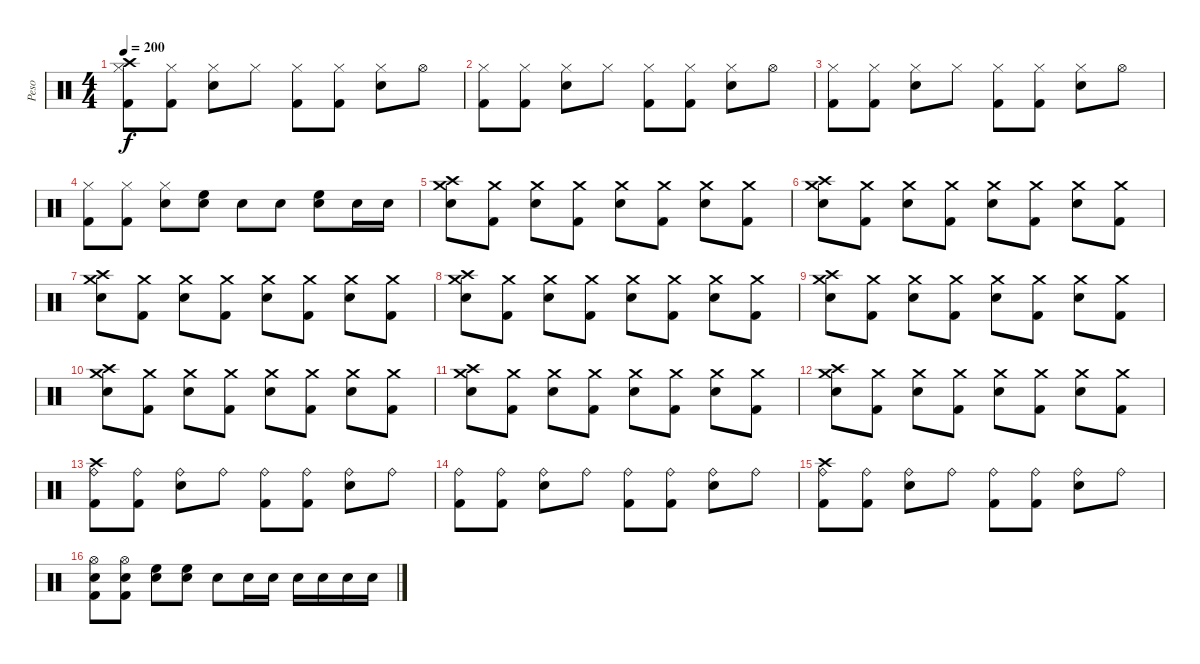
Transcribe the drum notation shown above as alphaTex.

\track ("Peso" "Peso") {instrument percussion}
\staff {score}
\articulation defaults
\ts (4 4)
\tempo 200
\clef neutral
\ks c
("Crash high (hit)" "Hi-Hat (closed)" "Kick (hit) 2").8{dy f} ("Hi-Hat (closed)" "Kick (hit) 2").8 ("Hi-Hat (closed)" "Snare (hit) 2").8 "Hi-Hat (closed)".8 ("Hi-Hat (closed)" "Kick (hit) 2").8 ("Hi-Hat (closed)" "Kick (hit) 2").8 ("Hi-Hat (closed)" "Snare (hit) 2").8 "Hi-Hat (open)".8 |
("Hi-Hat (closed)" "Kick (hit) 2").8 ("Hi-Hat (closed)" "Kick (hit) 2").8 ("Hi-Hat (closed)" "Snare (hit) 2").8 "Hi-Hat (closed)".8 ("Hi-Hat (closed)" "Kick (hit) 2").8 ("Hi-Hat (closed)" "Kick (hit) 2").8 ("Hi-Hat (closed)" "Snare (hit) 2").8 "Hi-Hat (open)".8 |
("Hi-Hat (closed)" "Kick (hit) 2").8 ("Hi-Hat (closed)" "Kick (hit) 2").8 ("Hi-Hat (closed)" "Snare (hit) 2").8 "Hi-Hat (closed)".8 ("Hi-Hat (closed)" "Kick (hit) 2").8 ("Hi-Hat (closed)" "Kick (hit) 2").8 ("Hi-Hat (closed)" "Snare (hit) 2").8 "Hi-Hat (open)".8 |
("Hi-Hat (closed)" "Kick (hit) 2").8 ("Hi-Hat (closed)" "Kick (hit) 2").8 ("Hi-Hat (closed)" "Snare (hit) 2").8 ("Snare (hit) 2" "High Floor Tom (hit)").8 "Snare (hit) 2".8 "Snare (hit) 2".8 ("Snare (hit) 2" "High Floor Tom (hit)").8 "Snare (hit) 2".16 "Snare (hit) 2".16 |
("Crash high (hit)" "Crash medium (hit)" "Snare (hit) 2").8 ("Crash medium (hit)"{x} "Kick (hit) 2").8 ("Crash medium (hit)" "Snare (hit) 2").8 ("Crash medium (hit)"{x} "Kick (hit) 2").8 ("Crash medium (hit)" "Snare (hit) 2").8 ("Crash medium (hit)"{x} "Kick (hit) 2").8 ("Crash medium (hit)" "Snare (hit) 2").8 ("Crash medium (hit)"{x} "Kick (hit) 2").8 |
("Crash high (hit)" "Crash medium (hit)" "Snare (hit) 2").8 ("Crash medium (hit)"{x} "Kick (hit) 2").8 ("Crash medium (hit)" "Snare (hit) 2").8 ("Crash medium (hit)"{x} "Kick (hit) 2").8 ("Crash medium (hit)" "Snare (hit) 2").8 ("Crash medium (hit)"{x} "Kick (hit) 2").8 ("Crash medium (hit)" "Snare (hit) 2").8 ("Crash medium (hit)"{x} "Kick (hit) 2").8 |
("Crash high (hit)" "Crash medium (hit)" "Snare (hit) 2").8 ("Crash medium (hit)"{x} "Kick (hit) 2").8 ("Crash medium (hit)" "Snare (hit) 2").8 ("Crash medium (hit)"{x} "Kick (hit) 2").8 ("Crash medium (hit)" "Snare (hit) 2").8 ("Crash medium (hit)"{x} "Kick (hit) 2").8 ("Crash medium (hit)" "Snare (hit) 2").8 ("Crash medium (hit)"{x} "Kick (hit) 2").8 |
("Crash high (hit)" "Crash medium (hit)" "Snare (hit) 2").8 ("Crash medium (hit)"{x} "Kick (hit) 2").8 ("Crash medium (hit)" "Snare (hit) 2").8 ("Crash medium (hit)"{x} "Kick (hit) 2").8 ("Crash medium (hit)" "Snare (hit) 2").8 ("Crash medium (hit)"{x} "Kick (hit) 2").8 ("Crash medium (hit)" "Snare (hit) 2").8 ("Crash medium (hit)"{x} "Kick (hit) 2").8 |
("Crash high (hit)" "Crash medium (hit)" "Snare (hit) 2").8 ("Crash medium (hit)"{x} "Kick (hit) 2").8 ("Crash medium (hit)" "Snare (hit) 2").8 ("Crash medium (hit)"{x} "Kick (hit) 2").8 ("Crash medium (hit)" "Snare (hit) 2").8 ("Crash medium (hit)"{x} "Kick (hit) 2").8 ("Crash medium (hit)" "Snare (hit) 2").8 ("Crash medium (hit)"{x} "Kick (hit) 2").8 |
("Crash high (hit)" "Crash medium (hit)" "Snare (hit) 2").8 ("Crash medium (hit)"{x} "Kick (hit) 2").8 ("Crash medium (hit)" "Snare (hit) 2").8 ("Crash medium (hit)"{x} "Kick (hit) 2").8 ("Crash medium (hit)" "Snare (hit) 2").8 ("Crash medium (hit)"{x} "Kick (hit) 2").8 ("Crash medium (hit)" "Snare (hit) 2").8 ("Crash medium (hit)"{x} "Kick (hit) 2").8 |
("Crash high (hit)" "Crash medium (hit)" "Snare (hit) 2").8 ("Crash medium (hit)"{x} "Kick (hit) 2").8 ("Crash medium (hit)" "Snare (hit) 2").8 ("Crash medium (hit)"{x} "Kick (hit) 2").8 ("Crash medium (hit)" "Snare (hit) 2").8 ("Crash medium (hit)"{x} "Kick (hit) 2").8 ("Crash medium (hit)" "Snare (hit) 2").8 ("Crash medium (hit)"{x} "Kick (hit) 2").8 |
("Crash high (hit)" "Crash medium (hit)" "Snare (hit) 2").8 ("Crash medium (hit)"{x} "Kick (hit) 2").8 ("Crash medium (hit)" "Snare (hit) 2").8 ("Crash medium (hit)"{x} "Kick (hit) 2").8 ("Crash medium (hit)" "Snare (hit) 2").8 ("Crash medium (hit)"{x} "Kick (hit) 2").8 ("Crash medium (hit)" "Snare (hit) 2").8 ("Crash medium (hit)"{x} "Kick (hit) 2").8 |
("Crash high (hit)" "Ride (bell)" "Kick (hit) 2").8 ("Ride (bell)" "Kick (hit) 2").8 ("Ride (bell)" "Snare (hit) 2").8 "Ride (bell)".8 ("Ride (bell)" "Kick (hit) 2").8 ("Ride (bell)" "Kick (hit) 2").8 ("Ride (bell)" "Snare (hit) 2").8 "Ride (bell)".8 |
("Ride (bell)" "Kick (hit) 2").8 ("Ride (bell)" "Kick (hit) 2").8 ("Ride (bell)" "Snare (hit) 2").8 "Ride (bell)".8 ("Ride (bell)" "Kick (hit) 2").8 ("Ride (bell)" "Kick (hit) 2").8 ("Ride (bell)" "Snare (hit) 2").8 "Ride (bell)".8 |
("Crash high (hit)" "Ride (bell)" "Kick (hit) 2").8 ("Ride (bell)" "Kick (hit) 2").8 ("Ride (bell)" "Snare (hit) 2").8 "Ride (bell)".8 ("Ride (bell)" "Kick (hit) 2").8 ("Ride (bell)" "Kick (hit) 2").8 ("Ride (bell)" "Snare (hit) 2").8 "Ride (bell)".8 |
("Hi-Hat (open)" "Snare (hit) 2" "Kick (hit) 2").8 ("Hi-Hat (open)" "Snare (hit) 2" "Kick (hit) 2").8 ("Snare (hit) 2" "High Floor Tom (hit)").8 ("Snare (hit) 2" "High Floor Tom (hit)").8 "Snare (hit) 2".8 "Snare (hit) 2".16 "Snare (hit) 2".16 "Snare (hit) 2".16 "Snare (hit) 2".16 "Snare (hit) 2".16 "Snare (hit) 2".16
